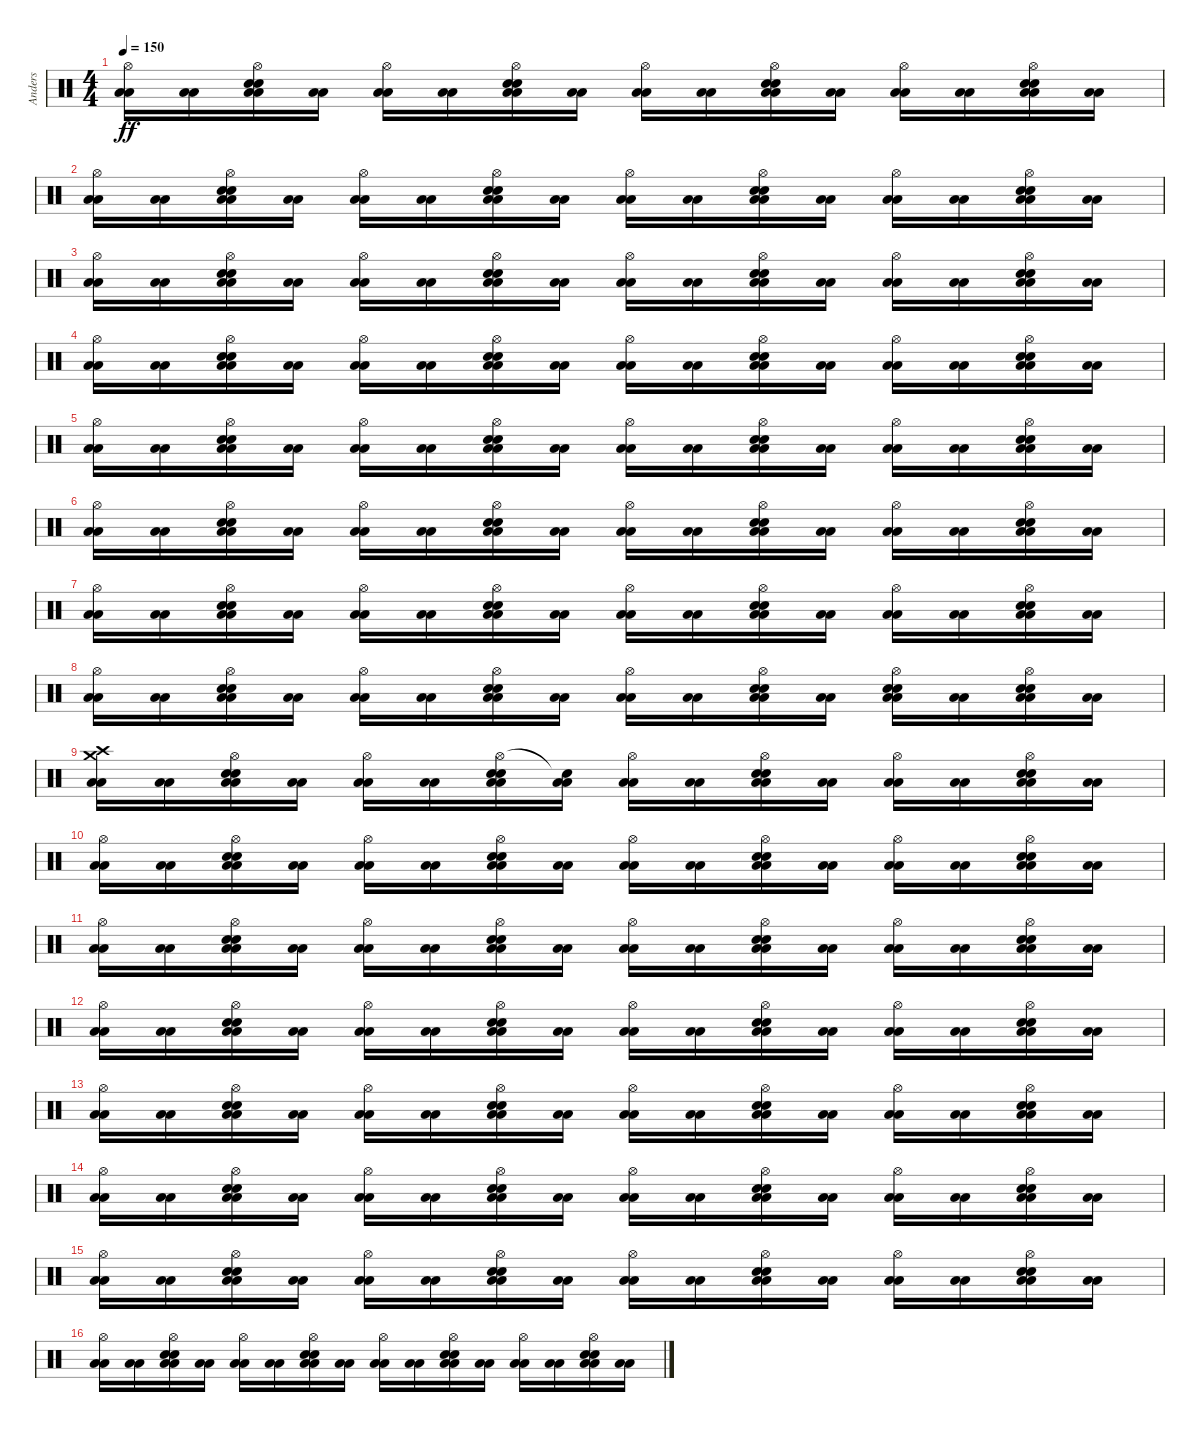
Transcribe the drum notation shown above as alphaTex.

\track ("Anders" "Anders") {instrument percussion}
\staff {score}
\articulation defaults
\ts (4 4)
\tempo 150
\clef neutral
\ks c
("Hi-Hat (open)" "Low Floor Tom (hit)" "Low Floor Tom (hit)").16{dy ff} ("Low Floor Tom (hit)" "Low Floor Tom (hit)").16 ("Hi-Hat (open)" "Electric Snare (hit)" "Electric Snare (hit)" "Low Floor Tom (hit)" "Low Floor Tom (hit)").16 ("Low Floor Tom (hit)" "Low Floor Tom (hit)").16 ("Hi-Hat (open)" "Low Floor Tom (hit)" "Low Floor Tom (hit)").16 ("Low Floor Tom (hit)" "Low Floor Tom (hit)").16 ("Hi-Hat (open)" "Electric Snare (hit)" "Electric Snare (hit)" "Low Floor Tom (hit)" "Low Floor Tom (hit)").16 ("Low Floor Tom (hit)" "Low Floor Tom (hit)").16 ("Hi-Hat (open)" "Low Floor Tom (hit)" "Low Floor Tom (hit)").16 ("Low Floor Tom (hit)" "Low Floor Tom (hit)").16 ("Hi-Hat (open)" "Electric Snare (hit)" "Electric Snare (hit)" "Low Floor Tom (hit)" "Low Floor Tom (hit)").16 ("Low Floor Tom (hit)" "Low Floor Tom (hit)").16 ("Hi-Hat (open)" "Low Floor Tom (hit)" "Low Floor Tom (hit)").16 ("Low Floor Tom (hit)" "Low Floor Tom (hit)").16 ("Hi-Hat (open)" "Electric Snare (hit)" "Electric Snare (hit)" "Low Floor Tom (hit)" "Low Floor Tom (hit)").16 ("Low Floor Tom (hit)" "Low Floor Tom (hit)").16 |
("Hi-Hat (open)" "Low Floor Tom (hit)" "Low Floor Tom (hit)").16 ("Low Floor Tom (hit)" "Low Floor Tom (hit)").16 ("Hi-Hat (open)" "Electric Snare (hit)" "Electric Snare (hit)" "Low Floor Tom (hit)" "Low Floor Tom (hit)").16 ("Low Floor Tom (hit)" "Low Floor Tom (hit)").16 ("Hi-Hat (open)" "Low Floor Tom (hit)" "Low Floor Tom (hit)").16 ("Low Floor Tom (hit)" "Low Floor Tom (hit)").16 ("Hi-Hat (open)" "Electric Snare (hit)" "Electric Snare (hit)" "Low Floor Tom (hit)" "Low Floor Tom (hit)").16 ("Low Floor Tom (hit)" "Low Floor Tom (hit)").16 ("Hi-Hat (open)" "Low Floor Tom (hit)" "Low Floor Tom (hit)").16 ("Low Floor Tom (hit)" "Low Floor Tom (hit)").16 ("Hi-Hat (open)" "Electric Snare (hit)" "Electric Snare (hit)" "Low Floor Tom (hit)" "Low Floor Tom (hit)").16 ("Low Floor Tom (hit)" "Low Floor Tom (hit)").16 ("Hi-Hat (open)" "Low Floor Tom (hit)" "Low Floor Tom (hit)").16 ("Low Floor Tom (hit)" "Low Floor Tom (hit)").16 ("Hi-Hat (open)" "Electric Snare (hit)" "Electric Snare (hit)" "Low Floor Tom (hit)" "Low Floor Tom (hit)").16 ("Low Floor Tom (hit)" "Low Floor Tom (hit)").16 |
("Hi-Hat (open)" "Low Floor Tom (hit)" "Low Floor Tom (hit)").16 ("Low Floor Tom (hit)" "Low Floor Tom (hit)").16 ("Hi-Hat (open)" "Electric Snare (hit)" "Electric Snare (hit)" "Low Floor Tom (hit)" "Low Floor Tom (hit)").16 ("Low Floor Tom (hit)" "Low Floor Tom (hit)").16 ("Hi-Hat (open)" "Low Floor Tom (hit)" "Low Floor Tom (hit)").16 ("Low Floor Tom (hit)" "Low Floor Tom (hit)").16 ("Hi-Hat (open)" "Electric Snare (hit)" "Electric Snare (hit)" "Low Floor Tom (hit)" "Low Floor Tom (hit)").16 ("Low Floor Tom (hit)" "Low Floor Tom (hit)").16 ("Hi-Hat (open)" "Low Floor Tom (hit)" "Low Floor Tom (hit)").16 ("Low Floor Tom (hit)" "Low Floor Tom (hit)").16 ("Hi-Hat (open)" "Electric Snare (hit)" "Electric Snare (hit)" "Low Floor Tom (hit)" "Low Floor Tom (hit)").16 ("Low Floor Tom (hit)" "Low Floor Tom (hit)").16 ("Hi-Hat (open)" "Low Floor Tom (hit)" "Low Floor Tom (hit)").16 ("Low Floor Tom (hit)" "Low Floor Tom (hit)").16 ("Hi-Hat (open)" "Electric Snare (hit)" "Electric Snare (hit)" "Low Floor Tom (hit)" "Low Floor Tom (hit)").16 ("Low Floor Tom (hit)" "Low Floor Tom (hit)").16 |
("Hi-Hat (open)" "Low Floor Tom (hit)" "Low Floor Tom (hit)").16 ("Low Floor Tom (hit)" "Low Floor Tom (hit)").16 ("Hi-Hat (open)" "Electric Snare (hit)" "Electric Snare (hit)" "Low Floor Tom (hit)" "Low Floor Tom (hit)").16 ("Low Floor Tom (hit)" "Low Floor Tom (hit)").16 ("Hi-Hat (open)" "Low Floor Tom (hit)" "Low Floor Tom (hit)").16 ("Low Floor Tom (hit)" "Low Floor Tom (hit)").16 ("Hi-Hat (open)" "Electric Snare (hit)" "Electric Snare (hit)" "Low Floor Tom (hit)" "Low Floor Tom (hit)").16 ("Low Floor Tom (hit)" "Low Floor Tom (hit)").16 ("Hi-Hat (open)" "Low Floor Tom (hit)" "Low Floor Tom (hit)").16 ("Low Floor Tom (hit)" "Low Floor Tom (hit)").16 ("Hi-Hat (open)" "Electric Snare (hit)" "Electric Snare (hit)" "Low Floor Tom (hit)" "Low Floor Tom (hit)").16 ("Low Floor Tom (hit)" "Low Floor Tom (hit)").16 ("Hi-Hat (open)" "Low Floor Tom (hit)" "Low Floor Tom (hit)").16 ("Low Floor Tom (hit)" "Low Floor Tom (hit)").16 ("Hi-Hat (open)" "Electric Snare (hit)" "Electric Snare (hit)" "Low Floor Tom (hit)" "Low Floor Tom (hit)").16 ("Low Floor Tom (hit)" "Low Floor Tom (hit)").16 |
("Hi-Hat (open)" "Low Floor Tom (hit)" "Low Floor Tom (hit)").16 ("Low Floor Tom (hit)" "Low Floor Tom (hit)").16 ("Hi-Hat (open)" "Electric Snare (hit)" "Electric Snare (hit)" "Low Floor Tom (hit)" "Low Floor Tom (hit)").16 ("Low Floor Tom (hit)" "Low Floor Tom (hit)").16 ("Hi-Hat (open)" "Low Floor Tom (hit)" "Low Floor Tom (hit)").16 ("Low Floor Tom (hit)" "Low Floor Tom (hit)").16 ("Hi-Hat (open)" "Electric Snare (hit)" "Electric Snare (hit)" "Low Floor Tom (hit)" "Low Floor Tom (hit)").16 ("Low Floor Tom (hit)" "Low Floor Tom (hit)").16 ("Hi-Hat (open)" "Low Floor Tom (hit)" "Low Floor Tom (hit)").16 ("Low Floor Tom (hit)" "Low Floor Tom (hit)").16 ("Hi-Hat (open)" "Electric Snare (hit)" "Electric Snare (hit)" "Low Floor Tom (hit)" "Low Floor Tom (hit)").16 ("Low Floor Tom (hit)" "Low Floor Tom (hit)").16 ("Hi-Hat (open)" "Low Floor Tom (hit)" "Low Floor Tom (hit)").16 ("Low Floor Tom (hit)" "Low Floor Tom (hit)").16 ("Hi-Hat (open)" "Electric Snare (hit)" "Electric Snare (hit)" "Low Floor Tom (hit)" "Low Floor Tom (hit)").16 ("Low Floor Tom (hit)" "Low Floor Tom (hit)").16 |
("Hi-Hat (open)" "Low Floor Tom (hit)" "Low Floor Tom (hit)").16 ("Low Floor Tom (hit)" "Low Floor Tom (hit)").16 ("Hi-Hat (open)" "Electric Snare (hit)" "Electric Snare (hit)" "Low Floor Tom (hit)" "Low Floor Tom (hit)").16 ("Low Floor Tom (hit)" "Low Floor Tom (hit)").16 ("Hi-Hat (open)" "Low Floor Tom (hit)" "Low Floor Tom (hit)").16 ("Low Floor Tom (hit)" "Low Floor Tom (hit)").16 ("Hi-Hat (open)" "Electric Snare (hit)" "Electric Snare (hit)" "Low Floor Tom (hit)" "Low Floor Tom (hit)").16 ("Low Floor Tom (hit)" "Low Floor Tom (hit)").16 ("Hi-Hat (open)" "Low Floor Tom (hit)" "Low Floor Tom (hit)").16 ("Low Floor Tom (hit)" "Low Floor Tom (hit)").16 ("Hi-Hat (open)" "Electric Snare (hit)" "Electric Snare (hit)" "Low Floor Tom (hit)" "Low Floor Tom (hit)").16 ("Low Floor Tom (hit)" "Low Floor Tom (hit)").16 ("Hi-Hat (open)" "Low Floor Tom (hit)" "Low Floor Tom (hit)").16 ("Low Floor Tom (hit)" "Low Floor Tom (hit)").16 ("Hi-Hat (open)" "Electric Snare (hit)" "Electric Snare (hit)" "Low Floor Tom (hit)" "Low Floor Tom (hit)").16 ("Low Floor Tom (hit)" "Low Floor Tom (hit)").16 |
("Hi-Hat (open)" "Low Floor Tom (hit)" "Low Floor Tom (hit)").16 ("Low Floor Tom (hit)" "Low Floor Tom (hit)").16 ("Hi-Hat (open)" "Electric Snare (hit)" "Electric Snare (hit)" "Low Floor Tom (hit)" "Low Floor Tom (hit)").16 ("Low Floor Tom (hit)" "Low Floor Tom (hit)").16 ("Hi-Hat (open)" "Low Floor Tom (hit)" "Low Floor Tom (hit)").16 ("Low Floor Tom (hit)" "Low Floor Tom (hit)").16 ("Hi-Hat (open)" "Electric Snare (hit)" "Electric Snare (hit)" "Low Floor Tom (hit)" "Low Floor Tom (hit)").16 ("Low Floor Tom (hit)" "Low Floor Tom (hit)").16 ("Hi-Hat (open)" "Low Floor Tom (hit)" "Low Floor Tom (hit)").16 ("Low Floor Tom (hit)" "Low Floor Tom (hit)").16 ("Hi-Hat (open)" "Electric Snare (hit)" "Electric Snare (hit)" "Low Floor Tom (hit)" "Low Floor Tom (hit)").16 ("Low Floor Tom (hit)" "Low Floor Tom (hit)").16 ("Hi-Hat (open)" "Low Floor Tom (hit)" "Low Floor Tom (hit)").16 ("Low Floor Tom (hit)" "Low Floor Tom (hit)").16 ("Hi-Hat (open)" "Electric Snare (hit)" "Electric Snare (hit)" "Low Floor Tom (hit)" "Low Floor Tom (hit)").16 ("Low Floor Tom (hit)" "Low Floor Tom (hit)").16 |
("Hi-Hat (open)" "Low Floor Tom (hit)" "Low Floor Tom (hit)").16 ("Low Floor Tom (hit)" "Low Floor Tom (hit)").16 ("Hi-Hat (open)" "Electric Snare (hit)" "Electric Snare (hit)" "Low Floor Tom (hit)" "Low Floor Tom (hit)").16 ("Low Floor Tom (hit)" "Low Floor Tom (hit)").16 ("Hi-Hat (open)" "Low Floor Tom (hit)" "Low Floor Tom (hit)").16 ("Low Floor Tom (hit)" "Low Floor Tom (hit)").16 ("Hi-Hat (open)" "Electric Snare (hit)" "Electric Snare (hit)" "Low Floor Tom (hit)" "Low Floor Tom (hit)").16 ("Low Floor Tom (hit)" "Low Floor Tom (hit)").16 ("Hi-Hat (open)" "Low Floor Tom (hit)" "Low Floor Tom (hit)").16 ("Low Floor Tom (hit)" "Low Floor Tom (hit)").16 ("Hi-Hat (open)" "Electric Snare (hit)" "Electric Snare (hit)" "Low Floor Tom (hit)" "Low Floor Tom (hit)").16 ("Low Floor Tom (hit)" "Low Floor Tom (hit)").16 ("Hi-Hat (open)" "Electric Snare (hit)" "Electric Snare (hit)" "Low Floor Tom (hit)" "Low Floor Tom (hit)").16 ("Low Floor Tom (hit)" "Low Floor Tom (hit)").16 ("Hi-Hat (open)" "Electric Snare (hit)" "Electric Snare (hit)" "Low Floor Tom (hit)" "Low Floor Tom (hit)").16 ("Low Floor Tom (hit)" "Low Floor Tom (hit)").16 |
("Crash high (hit)" "Crash medium (hit)" "Low Floor Tom (hit)" "Low Floor Tom (hit)").16 ("Low Floor Tom (hit)" "Low Floor Tom (hit)").16 ("Hi-Hat (open)" "Electric Snare (hit)" "Electric Snare (hit)" "Low Floor Tom (hit)" "Low Floor Tom (hit)").16 ("Low Floor Tom (hit)" "Low Floor Tom (hit)").16 ("Hi-Hat (open)" "Low Floor Tom (hit)" "Low Floor Tom (hit)").16 ("Low Floor Tom (hit)" "Low Floor Tom (hit)").16 ("Hi-Hat (open)" "Electric Snare (hit)" "Electric Snare (hit)" "Low Floor Tom (hit)" "Low Floor Tom (hit)").16 ("Snare (hit)"{t} "Low Floor Tom (hit)" "Low Floor Tom (hit)").16 ("Hi-Hat (open)" "Low Floor Tom (hit)" "Low Floor Tom (hit)").16 ("Low Floor Tom (hit)" "Low Floor Tom (hit)").16 ("Hi-Hat (open)" "Electric Snare (hit)" "Electric Snare (hit)" "Low Floor Tom (hit)" "Low Floor Tom (hit)").16 ("Low Floor Tom (hit)" "Low Floor Tom (hit)").16 ("Hi-Hat (open)" "Low Floor Tom (hit)" "Low Floor Tom (hit)").16 ("Low Floor Tom (hit)" "Low Floor Tom (hit)").16 ("Hi-Hat (open)" "Electric Snare (hit)" "Electric Snare (hit)" "Low Floor Tom (hit)" "Low Floor Tom (hit)").16 ("Low Floor Tom (hit)" "Low Floor Tom (hit)").16 |
("Hi-Hat (open)" "Low Floor Tom (hit)" "Low Floor Tom (hit)").16 ("Low Floor Tom (hit)" "Low Floor Tom (hit)").16 ("Hi-Hat (open)" "Electric Snare (hit)" "Electric Snare (hit)" "Low Floor Tom (hit)" "Low Floor Tom (hit)").16 ("Low Floor Tom (hit)" "Low Floor Tom (hit)").16 ("Hi-Hat (open)" "Low Floor Tom (hit)" "Low Floor Tom (hit)").16 ("Low Floor Tom (hit)" "Low Floor Tom (hit)").16 ("Hi-Hat (open)" "Electric Snare (hit)" "Electric Snare (hit)" "Low Floor Tom (hit)" "Low Floor Tom (hit)").16 ("Low Floor Tom (hit)" "Low Floor Tom (hit)").16 ("Hi-Hat (open)" "Low Floor Tom (hit)" "Low Floor Tom (hit)").16 ("Low Floor Tom (hit)" "Low Floor Tom (hit)").16 ("Hi-Hat (open)" "Electric Snare (hit)" "Electric Snare (hit)" "Low Floor Tom (hit)" "Low Floor Tom (hit)").16 ("Low Floor Tom (hit)" "Low Floor Tom (hit)").16 ("Hi-Hat (open)" "Low Floor Tom (hit)" "Low Floor Tom (hit)").16 ("Low Floor Tom (hit)" "Low Floor Tom (hit)").16 ("Hi-Hat (open)" "Electric Snare (hit)" "Electric Snare (hit)" "Low Floor Tom (hit)" "Low Floor Tom (hit)").16 ("Low Floor Tom (hit)" "Low Floor Tom (hit)").16 |
("Hi-Hat (open)" "Low Floor Tom (hit)" "Low Floor Tom (hit)").16 ("Low Floor Tom (hit)" "Low Floor Tom (hit)").16 ("Hi-Hat (open)" "Electric Snare (hit)" "Electric Snare (hit)" "Low Floor Tom (hit)" "Low Floor Tom (hit)").16 ("Low Floor Tom (hit)" "Low Floor Tom (hit)").16 ("Hi-Hat (open)" "Low Floor Tom (hit)" "Low Floor Tom (hit)").16 ("Low Floor Tom (hit)" "Low Floor Tom (hit)").16 ("Hi-Hat (open)" "Electric Snare (hit)" "Electric Snare (hit)" "Low Floor Tom (hit)" "Low Floor Tom (hit)").16 ("Low Floor Tom (hit)" "Low Floor Tom (hit)").16 ("Hi-Hat (open)" "Low Floor Tom (hit)" "Low Floor Tom (hit)").16 ("Low Floor Tom (hit)" "Low Floor Tom (hit)").16 ("Hi-Hat (open)" "Electric Snare (hit)" "Electric Snare (hit)" "Low Floor Tom (hit)" "Low Floor Tom (hit)").16 ("Low Floor Tom (hit)" "Low Floor Tom (hit)").16 ("Hi-Hat (open)" "Low Floor Tom (hit)" "Low Floor Tom (hit)").16 ("Low Floor Tom (hit)" "Low Floor Tom (hit)").16 ("Hi-Hat (open)" "Electric Snare (hit)" "Electric Snare (hit)" "Low Floor Tom (hit)" "Low Floor Tom (hit)").16 ("Low Floor Tom (hit)" "Low Floor Tom (hit)").16 |
("Hi-Hat (open)" "Low Floor Tom (hit)" "Low Floor Tom (hit)").16 ("Low Floor Tom (hit)" "Low Floor Tom (hit)").16 ("Hi-Hat (open)" "Electric Snare (hit)" "Electric Snare (hit)" "Low Floor Tom (hit)" "Low Floor Tom (hit)").16 ("Low Floor Tom (hit)" "Low Floor Tom (hit)").16 ("Hi-Hat (open)" "Low Floor Tom (hit)" "Low Floor Tom (hit)").16 ("Low Floor Tom (hit)" "Low Floor Tom (hit)").16 ("Hi-Hat (open)" "Electric Snare (hit)" "Electric Snare (hit)" "Low Floor Tom (hit)" "Low Floor Tom (hit)").16 ("Low Floor Tom (hit)" "Low Floor Tom (hit)").16 ("Hi-Hat (open)" "Low Floor Tom (hit)" "Low Floor Tom (hit)").16 ("Low Floor Tom (hit)" "Low Floor Tom (hit)").16 ("Hi-Hat (open)" "Electric Snare (hit)" "Electric Snare (hit)" "Low Floor Tom (hit)" "Low Floor Tom (hit)").16 ("Low Floor Tom (hit)" "Low Floor Tom (hit)").16 ("Hi-Hat (open)" "Low Floor Tom (hit)" "Low Floor Tom (hit)").16 ("Low Floor Tom (hit)" "Low Floor Tom (hit)").16 ("Hi-Hat (open)" "Electric Snare (hit)" "Electric Snare (hit)" "Low Floor Tom (hit)" "Low Floor Tom (hit)").16 ("Low Floor Tom (hit)" "Low Floor Tom (hit)").16 |
("Hi-Hat (open)" "Low Floor Tom (hit)" "Low Floor Tom (hit)").16 ("Low Floor Tom (hit)" "Low Floor Tom (hit)").16 ("Hi-Hat (open)" "Electric Snare (hit)" "Electric Snare (hit)" "Low Floor Tom (hit)" "Low Floor Tom (hit)").16 ("Low Floor Tom (hit)" "Low Floor Tom (hit)").16 ("Hi-Hat (open)" "Low Floor Tom (hit)" "Low Floor Tom (hit)").16 ("Low Floor Tom (hit)" "Low Floor Tom (hit)").16 ("Hi-Hat (open)" "Electric Snare (hit)" "Electric Snare (hit)" "Low Floor Tom (hit)" "Low Floor Tom (hit)").16 ("Low Floor Tom (hit)" "Low Floor Tom (hit)").16 ("Hi-Hat (open)" "Low Floor Tom (hit)" "Low Floor Tom (hit)").16 ("Low Floor Tom (hit)" "Low Floor Tom (hit)").16 ("Hi-Hat (open)" "Electric Snare (hit)" "Electric Snare (hit)" "Low Floor Tom (hit)" "Low Floor Tom (hit)").16 ("Low Floor Tom (hit)" "Low Floor Tom (hit)").16 ("Hi-Hat (open)" "Low Floor Tom (hit)" "Low Floor Tom (hit)").16 ("Low Floor Tom (hit)" "Low Floor Tom (hit)").16 ("Hi-Hat (open)" "Electric Snare (hit)" "Electric Snare (hit)" "Low Floor Tom (hit)" "Low Floor Tom (hit)").16 ("Low Floor Tom (hit)" "Low Floor Tom (hit)").16 |
("Hi-Hat (open)" "Low Floor Tom (hit)" "Low Floor Tom (hit)").16 ("Low Floor Tom (hit)" "Low Floor Tom (hit)").16 ("Hi-Hat (open)" "Electric Snare (hit)" "Electric Snare (hit)" "Low Floor Tom (hit)" "Low Floor Tom (hit)").16 ("Low Floor Tom (hit)" "Low Floor Tom (hit)").16 ("Hi-Hat (open)" "Low Floor Tom (hit)" "Low Floor Tom (hit)").16 ("Low Floor Tom (hit)" "Low Floor Tom (hit)").16 ("Hi-Hat (open)" "Electric Snare (hit)" "Electric Snare (hit)" "Low Floor Tom (hit)" "Low Floor Tom (hit)").16 ("Low Floor Tom (hit)" "Low Floor Tom (hit)").16 ("Hi-Hat (open)" "Low Floor Tom (hit)" "Low Floor Tom (hit)").16 ("Low Floor Tom (hit)" "Low Floor Tom (hit)").16 ("Hi-Hat (open)" "Electric Snare (hit)" "Electric Snare (hit)" "Low Floor Tom (hit)" "Low Floor Tom (hit)").16 ("Low Floor Tom (hit)" "Low Floor Tom (hit)").16 ("Hi-Hat (open)" "Low Floor Tom (hit)" "Low Floor Tom (hit)").16 ("Low Floor Tom (hit)" "Low Floor Tom (hit)").16 ("Hi-Hat (open)" "Electric Snare (hit)" "Electric Snare (hit)" "Low Floor Tom (hit)" "Low Floor Tom (hit)").16 ("Low Floor Tom (hit)" "Low Floor Tom (hit)").16 |
("Hi-Hat (open)" "Low Floor Tom (hit)" "Low Floor Tom (hit)").16 ("Low Floor Tom (hit)" "Low Floor Tom (hit)").16 ("Hi-Hat (open)" "Electric Snare (hit)" "Electric Snare (hit)" "Low Floor Tom (hit)" "Low Floor Tom (hit)").16 ("Low Floor Tom (hit)" "Low Floor Tom (hit)").16 ("Hi-Hat (open)" "Low Floor Tom (hit)" "Low Floor Tom (hit)").16 ("Low Floor Tom (hit)" "Low Floor Tom (hit)").16 ("Hi-Hat (open)" "Electric Snare (hit)" "Electric Snare (hit)" "Low Floor Tom (hit)" "Low Floor Tom (hit)").16 ("Low Floor Tom (hit)" "Low Floor Tom (hit)").16 ("Hi-Hat (open)" "Low Floor Tom (hit)" "Low Floor Tom (hit)").16 ("Low Floor Tom (hit)" "Low Floor Tom (hit)").16 ("Hi-Hat (open)" "Electric Snare (hit)" "Electric Snare (hit)" "Low Floor Tom (hit)" "Low Floor Tom (hit)").16 ("Low Floor Tom (hit)" "Low Floor Tom (hit)").16 ("Hi-Hat (open)" "Low Floor Tom (hit)" "Low Floor Tom (hit)").16 ("Low Floor Tom (hit)" "Low Floor Tom (hit)").16 ("Hi-Hat (open)" "Electric Snare (hit)" "Electric Snare (hit)" "Low Floor Tom (hit)" "Low Floor Tom (hit)").16 ("Low Floor Tom (hit)" "Low Floor Tom (hit)").16 |
("Hi-Hat (open)" "Low Floor Tom (hit)" "Low Floor Tom (hit)").16 ("Low Floor Tom (hit)" "Low Floor Tom (hit)").16 ("Hi-Hat (open)" "Electric Snare (hit)" "Electric Snare (hit)" "Low Floor Tom (hit)" "Low Floor Tom (hit)").16 ("Low Floor Tom (hit)" "Low Floor Tom (hit)").16 ("Hi-Hat (open)" "Low Floor Tom (hit)" "Low Floor Tom (hit)").16 ("Low Floor Tom (hit)" "Low Floor Tom (hit)").16 ("Hi-Hat (open)" "Electric Snare (hit)" "Electric Snare (hit)" "Low Floor Tom (hit)" "Low Floor Tom (hit)").16 ("Low Floor Tom (hit)" "Low Floor Tom (hit)").16 ("Hi-Hat (open)" "Low Floor Tom (hit)" "Low Floor Tom (hit)").16 ("Low Floor Tom (hit)" "Low Floor Tom (hit)").16 ("Hi-Hat (open)" "Electric Snare (hit)" "Electric Snare (hit)" "Low Floor Tom (hit)" "Low Floor Tom (hit)").16 ("Low Floor Tom (hit)" "Low Floor Tom (hit)").16 ("Hi-Hat (open)" "Low Floor Tom (hit)" "Low Floor Tom (hit)").16 ("Low Floor Tom (hit)" "Low Floor Tom (hit)").16 ("Hi-Hat (open)" "Electric Snare (hit)" "Electric Snare (hit)" "Low Floor Tom (hit)" "Low Floor Tom (hit)").16 ("Low Floor Tom (hit)" "Low Floor Tom (hit)").16
